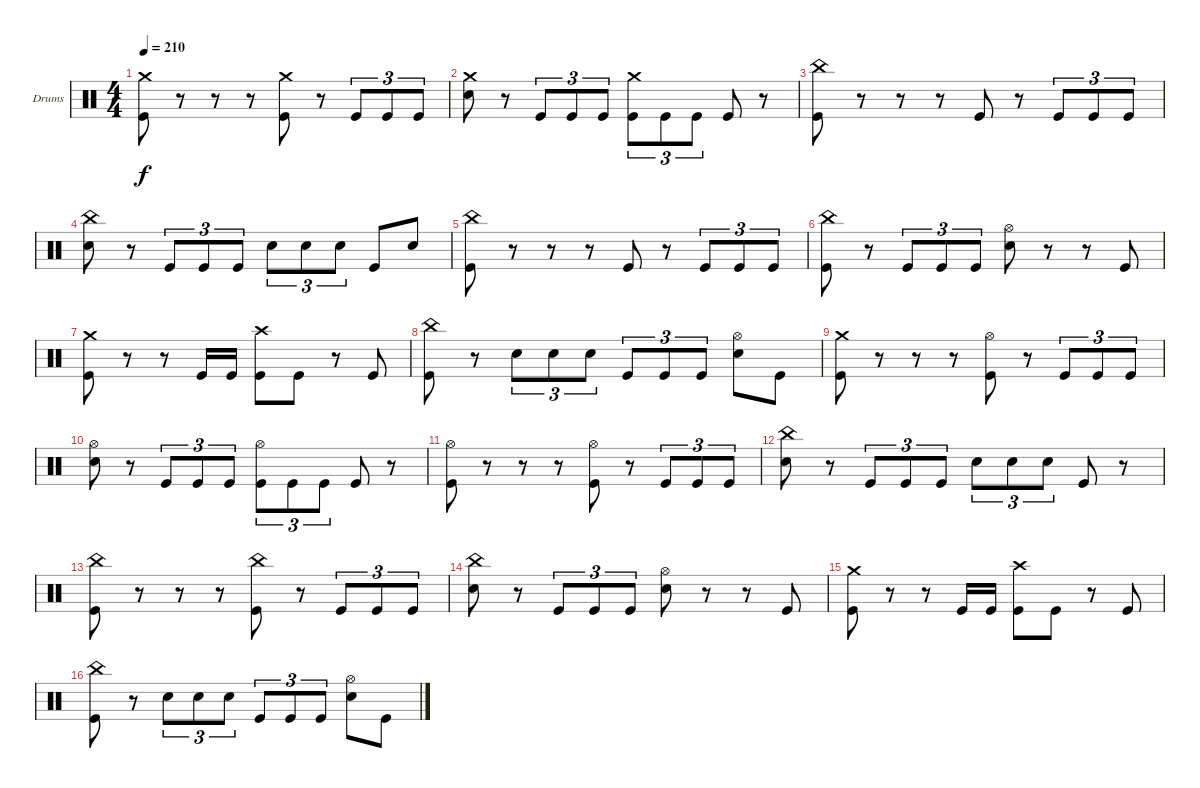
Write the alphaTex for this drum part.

\bracketExtendMode groupsimilarinstruments
\firstSystemTrackNameOrientation horizontal
\otherSystemsTrackNameOrientation horizontal
\track ("Drumkit" "Drums") {instrument percussion}
\staff {score}
\articulation defaults
\ts (4 4)
\tempo 210
\clef neutral
\ks c
("Crash medium (hit)" "Kick (hit)").8{dy f} r.8 r.8 r.8 ("Crash medium (hit)" "Kick (hit)").8 r.8 "Kick (hit)".8{tu (3 2)} "Kick (hit)".8{tu (3 2)} "Kick (hit)".8{tu (3 2)} |
("Crash medium (hit)" "Snare (hit) 2").8 r.8 "Kick (hit)".8{tu (3 2)} "Kick (hit)".8{tu (3 2)} "Kick (hit)".8{tu (3 2)} ("Crash medium (hit)" "Kick (hit)").8{tu (3 2)} "Kick (hit)".8{tu (3 2)} "Kick (hit)".8{tu (3 2)} "Kick (hit)".8 r.8 |
("China (hit)" "Kick (hit)").8 r.8 r.8 r.8 "Kick (hit)".8 r.8 "Kick (hit)".8{tu (3 2)} "Kick (hit)".8{tu (3 2)} "Kick (hit)".8{tu (3 2)} |
("China (hit)" "Snare (hit) 2").8 r.8 "Kick (hit)".8{tu (3 2)} "Kick (hit)".8{tu (3 2)} "Kick (hit)".8{tu (3 2)} "Snare (hit) 2".8{tu (3 2)} "Snare (hit) 2".8{tu (3 2)} "Snare (hit) 2".8{tu (3 2)} "Kick (hit)".8 "Snare (hit) 2".8 |
("China (hit)" "Kick (hit)").8 r.8 r.8 r.8 "Kick (hit)".8 r.8 "Kick (hit)".8{tu (3 2)} "Kick (hit)".8{tu (3 2)} "Kick (hit)".8{tu (3 2)} |
("China (hit)" "Kick (hit)").8 r.8 "Kick (hit)".8{tu (3 2)} "Kick (hit)".8{tu (3 2)} "Kick (hit)".8{tu (3 2)} ("Hi-Hat (open)" "Snare (hit) 2").8 r.8 r.8 "Kick (hit)".8 |
("Crash medium (hit)" "Kick (hit)").8 r.8 r.8 "Kick (hit)".16 "Kick (hit)".16 ("Crash high (hit)" "Kick (hit)").8 "Kick (hit)".8 r.8 "Kick (hit)".8 |
("China (hit)" "Kick (hit)").8 r.8 "Snare (hit) 2".8{tu (3 2)} "Snare (hit) 2".8{tu (3 2)} "Snare (hit) 2".8{tu (3 2)} "Kick (hit)".8{tu (3 2)} "Kick (hit)".8{tu (3 2)} "Kick (hit)".8{tu (3 2)} ("Hi-Hat (open)" "Snare (hit) 2").8 "Kick (hit)".8 |
("Crash medium (hit)" "Kick (hit)").8 r.8 r.8 r.8 ("Hi-Hat (open)" "Kick (hit)").8 r.8 "Kick (hit)".8{tu (3 2)} "Kick (hit)".8{tu (3 2)} "Kick (hit)".8{tu (3 2)} |
("Hi-Hat (open)" "Snare (hit) 2").8 r.8 "Kick (hit)".8{tu (3 2)} "Kick (hit)".8{tu (3 2)} "Kick (hit)".8{tu (3 2)} ("Hi-Hat (open)" "Kick (hit)").8{tu (3 2)} "Kick (hit)".8{tu (3 2)} "Kick (hit)".8{tu (3 2)} "Kick (hit)".8 r.8 |
("Hi-Hat (open)" "Kick (hit)").8 r.8 r.8 r.8 ("Hi-Hat (open)" "Kick (hit)").8 r.8 "Kick (hit)".8{tu (3 2)} "Kick (hit)".8{tu (3 2)} "Kick (hit)".8{tu (3 2)} |
("China (hit)" "Snare (hit) 2").8 r.8 "Kick (hit)".8{tu (3 2)} "Kick (hit)".8{tu (3 2)} "Kick (hit)".8{tu (3 2)} "Snare (hit) 2".8{tu (3 2)} "Snare (hit) 2".8{tu (3 2)} "Snare (hit) 2".8{tu (3 2)} "Kick (hit)".8 r.8 |
("China (hit)" "Kick (hit)").8 r.8 r.8 r.8 ("China (hit)" "Kick (hit)").8 r.8 "Kick (hit)".8{tu (3 2)} "Kick (hit)".8{tu (3 2)} "Kick (hit)".8{tu (3 2)} |
("China (hit)" "Snare (hit) 2").8 r.8 "Kick (hit)".8{tu (3 2)} "Kick (hit)".8{tu (3 2)} "Kick (hit)".8{tu (3 2)} ("Hi-Hat (open)" "Snare (hit) 2").8 r.8 r.8 "Kick (hit)".8 |
("Crash medium (hit)" "Kick (hit)").8 r.8 r.8 "Kick (hit)".16 "Kick (hit)".16 ("Crash high (hit)" "Kick (hit)").8 "Kick (hit)".8 r.8 "Kick (hit)".8 |
("China (hit)" "Kick (hit)").8 r.8 "Snare (hit) 2".8{tu (3 2)} "Snare (hit) 2".8{tu (3 2)} "Snare (hit) 2".8{tu (3 2)} "Kick (hit)".8{tu (3 2)} "Kick (hit)".8{tu (3 2)} "Kick (hit)".8{tu (3 2)} ("Hi-Hat (open)" "Snare (hit) 2").8 "Kick (hit)".8
